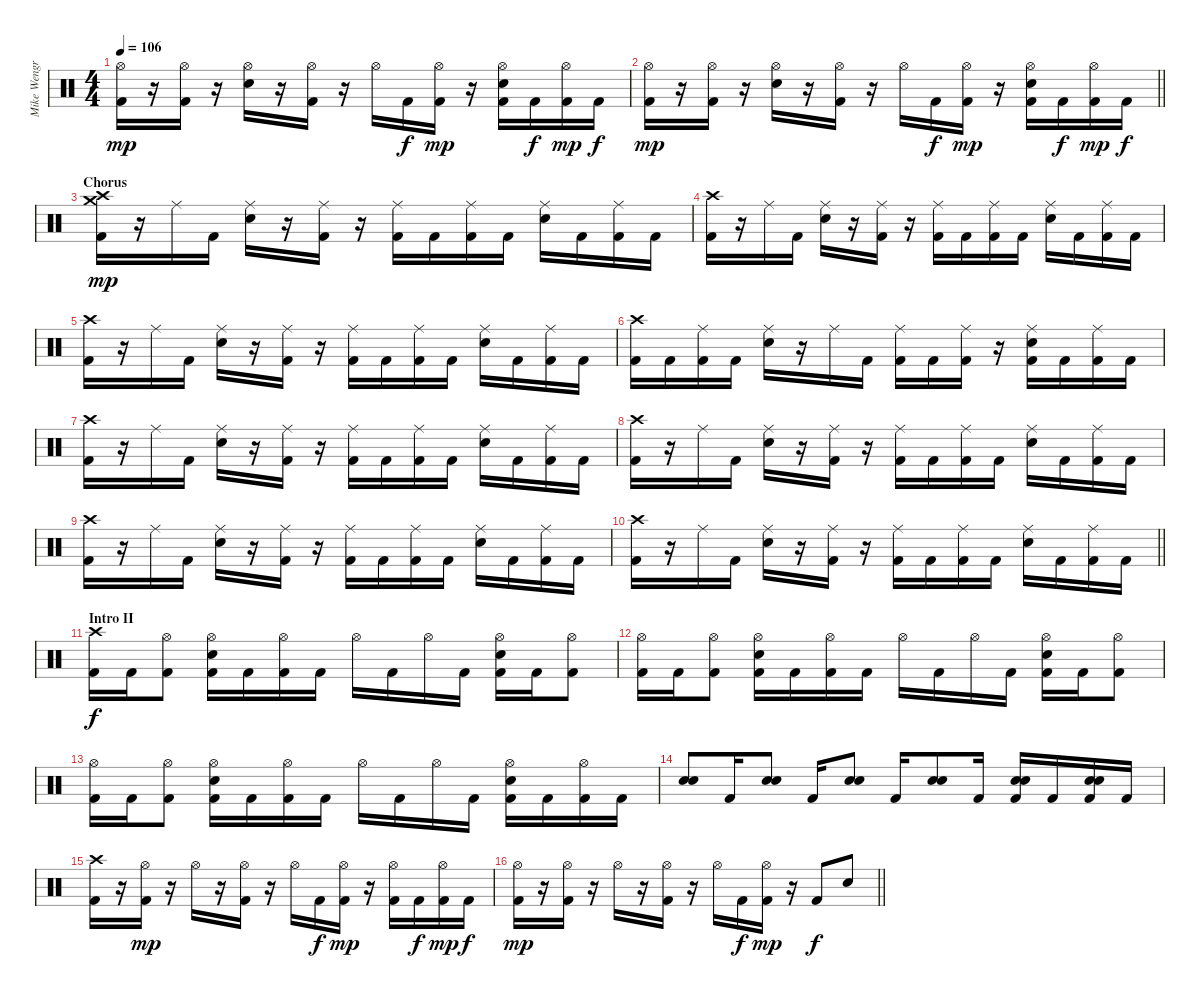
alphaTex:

\track ("Mike Wengren" "Mike Wengr") {instrument percussion}
\staff {score}
\articulation defaults
\ts (4 4)
\tempo 106
\clef neutral
\ks c
("Hi-Hat (open)" "Kick (hit) 2").16{dy mp} r.16 ("Hi-Hat (open)" "Kick (hit) 2").16 r.16 ("Hi-Hat (open)" "Snare (hit) 2").16 r.16 ("Hi-Hat (open)" "Kick (hit) 2").16 r.16 "Hi-Hat (open)".16 "Kick (hit) 2".16{dy f} ("Hi-Hat (open)" "Kick (hit) 2").16{dy mp} r.16 ("Hi-Hat (open)" "Snare (hit) 2" "Kick (hit) 2").16 "Kick (hit) 2".16{dy f} ("Hi-Hat (open)" "Kick (hit) 2").16{dy mp} "Kick (hit) 2".16{dy f} |
\barLineRight lightlight
("Hi-Hat (open)" "Kick (hit) 2").16{dy mp} r.16 ("Hi-Hat (open)" "Kick (hit) 2").16 r.16 ("Hi-Hat (open)" "Snare (hit) 2").16 r.16 ("Hi-Hat (open)" "Kick (hit) 2").16 r.16 "Hi-Hat (open)".16 "Kick (hit) 2".16{dy f} ("Hi-Hat (open)" "Kick (hit) 2").16{dy mp} r.16 ("Hi-Hat (open)" "Snare (hit) 2" "Kick (hit) 2").16 "Kick (hit) 2".16{dy f} ("Hi-Hat (open)" "Kick (hit) 2").16{dy mp} "Kick (hit) 2".16{dy f} |
\section ("" "Chorus")
("Crash high (hit)" "Crash medium (hit)" "Kick (hit) 2").16{dy mp} r.16 "Ride (middle)".16 "Kick (hit) 2".16 ("Ride (middle)" "Snare (hit) 2").16 r.16 ("Ride (middle)" "Kick (hit) 2").16 r.16 ("Ride (middle)" "Kick (hit) 2").16 "Kick (hit) 2".16 ("Ride (middle)" "Kick (hit) 2").16 "Kick (hit) 2".16 ("Ride (middle)" "Snare (hit) 2").16 "Kick (hit) 2".16 ("Ride (middle)" "Kick (hit) 2").16 "Kick (hit) 2".16 |
("Crash high (hit)" "Kick (hit) 2").16 r.16 "Ride (middle)".16 "Kick (hit) 2".16 ("Ride (middle)" "Snare (hit) 2").16 r.16 ("Ride (middle)" "Kick (hit) 2").16 r.16 ("Ride (middle)" "Kick (hit) 2").16 "Kick (hit) 2".16 ("Ride (middle)" "Kick (hit) 2").16 "Kick (hit) 2".16 ("Ride (middle)" "Snare (hit) 2").16 "Kick (hit) 2".16 ("Ride (middle)" "Kick (hit) 2").16 "Kick (hit) 2".16 |
("Crash high (hit)" "Kick (hit) 2").16 r.16 "Ride (middle)".16 "Kick (hit) 2".16 ("Ride (middle)" "Snare (hit) 2").16 r.16 ("Ride (middle)" "Kick (hit) 2").16 r.16 ("Ride (middle)" "Kick (hit) 2").16 "Kick (hit) 2".16 ("Ride (middle)" "Kick (hit) 2").16 "Kick (hit) 2".16 ("Ride (middle)" "Snare (hit) 2").16 "Kick (hit) 2".16 ("Ride (middle)" "Kick (hit) 2").16 "Kick (hit) 2".16 |
("Crash high (hit)" "Kick (hit) 2").16 "Kick (hit) 2".16 ("Ride (middle)" "Kick (hit) 2").16 "Kick (hit) 2".16 ("Ride (middle)" "Snare (hit) 2").16 r.16 "Ride (middle)".16 "Kick (hit) 2".16 ("Ride (middle)" "Kick (hit) 2").16 "Kick (hit) 2".16 ("Ride (middle)" "Kick (hit) 2").16 r.16 ("Ride (middle)" "Snare (hit) 2" "Kick (hit) 2").16 "Kick (hit) 2".16 ("Ride (middle)" "Kick (hit) 2").16 "Kick (hit) 2".16 |
("Crash high (hit)" "Kick (hit) 2").16 r.16 "Ride (middle)".16 "Kick (hit) 2".16 ("Ride (middle)" "Snare (hit) 2").16 r.16 ("Ride (middle)" "Kick (hit) 2").16 r.16 ("Ride (middle)" "Kick (hit) 2").16 "Kick (hit) 2".16 ("Ride (middle)" "Kick (hit) 2").16 "Kick (hit) 2".16 ("Ride (middle)" "Snare (hit) 2").16 "Kick (hit) 2".16 ("Ride (middle)" "Kick (hit) 2").16 "Kick (hit) 2".16 |
("Crash high (hit)" "Kick (hit) 2").16 r.16 "Ride (middle)".16 "Kick (hit) 2".16 ("Ride (middle)" "Snare (hit) 2").16 r.16 ("Ride (middle)" "Kick (hit) 2").16 r.16 ("Ride (middle)" "Kick (hit) 2").16 "Kick (hit) 2".16 ("Ride (middle)" "Kick (hit) 2").16 "Kick (hit) 2".16 ("Ride (middle)" "Snare (hit) 2").16 "Kick (hit) 2".16 ("Ride (middle)" "Kick (hit) 2").16 "Kick (hit) 2".16 |
("Crash high (hit)" "Kick (hit) 2").16 r.16 "Ride (middle)".16 "Kick (hit) 2".16 ("Ride (middle)" "Snare (hit) 2").16 r.16 ("Ride (middle)" "Kick (hit) 2").16 r.16 ("Ride (middle)" "Kick (hit) 2").16 "Kick (hit) 2".16 ("Ride (middle)" "Kick (hit) 2").16 "Kick (hit) 2".16 ("Ride (middle)" "Snare (hit) 2").16 "Kick (hit) 2".16 ("Ride (middle)" "Kick (hit) 2").16 "Kick (hit) 2".16 |
\barLineRight lightlight
("Crash high (hit)" "Kick (hit) 2").16 r.16 "Ride (middle)".16 "Kick (hit) 2".16 ("Ride (middle)" "Snare (hit) 2").16 r.16 ("Ride (middle)" "Kick (hit) 2").16 r.16 ("Ride (middle)" "Kick (hit) 2").16 "Kick (hit) 2".16 ("Ride (middle)" "Kick (hit) 2").16 "Kick (hit) 2".16 ("Ride (middle)" "Snare (hit) 2").16 "Kick (hit) 2".16 ("Ride (middle)" "Kick (hit) 2").16 "Kick (hit) 2".16 |
\section ("" "Intro II")
("Crash high (hit)" "Kick (hit) 2").16{dy f} "Kick (hit) 2".16 ("Hi-Hat (open)" "Kick (hit) 2").8 ("Hi-Hat (open)" "Snare (hit) 2" "Kick (hit) 2").16 "Kick (hit) 2".16 ("Hi-Hat (open)" "Kick (hit) 2").16 "Kick (hit) 2".16 "Hi-Hat (open)".16 "Kick (hit) 2".16 "Hi-Hat (open)".16 "Kick (hit) 2".16 ("Hi-Hat (open)" "Snare (hit) 2" "Kick (hit) 2").16 "Kick (hit) 2".16 ("Hi-Hat (open)" "Kick (hit) 2").8 |
("Hi-Hat (open)" "Kick (hit) 2").16 "Kick (hit) 2".16 ("Hi-Hat (open)" "Kick (hit) 2").8 ("Hi-Hat (open)" "Snare (hit) 2" "Kick (hit) 2").16 "Kick (hit) 2".16 ("Hi-Hat (open)" "Kick (hit) 2").16 "Kick (hit) 2".16 "Hi-Hat (open)".16 "Kick (hit) 2".16 "Hi-Hat (open)".16 "Kick (hit) 2".16 ("Hi-Hat (open)" "Snare (hit) 2" "Kick (hit) 2").16 "Kick (hit) 2".16 ("Hi-Hat (open)" "Kick (hit) 2").8 |
("Hi-Hat (open)" "Kick (hit) 2").16 "Kick (hit) 2".16 ("Hi-Hat (open)" "Kick (hit) 2").8 ("Hi-Hat (open)" "Snare (hit) 2" "Kick (hit) 2").16 "Kick (hit) 2".16 ("Hi-Hat (open)" "Kick (hit) 2").16 "Kick (hit) 2".16 "Hi-Hat (open)".16 "Kick (hit) 2".16 "Hi-Hat (open)".16 "Kick (hit) 2".16 ("Hi-Hat (open)" "Snare (hit) 2" "Kick (hit) 2").16 "Kick (hit) 2".16 ("Hi-Hat (open)" "Kick (hit) 2").16 "Kick (hit) 2".16 |
("Snare (hit) 2" "Snare (hit) 2").8 "Kick (hit) 2".16 ("Snare (hit) 2" "Snare (hit) 2").8 "Kick (hit) 2".16 ("Snare (hit) 2" "Snare (hit) 2").8 "Kick (hit) 2".16 ("Snare (hit) 2" "Snare (hit) 2").8 "Kick (hit) 2".16 ("Snare (hit) 2" "Snare (hit) 2" "Kick (hit) 2").16 "Kick (hit) 2".16 ("Snare (hit) 2" "Snare (hit) 2" "Kick (hit) 2").16 "Kick (hit) 2".16 |
("Crash high (hit)" "Kick (hit) 2").16 r.16 ("Hi-Hat (open)" "Kick (hit) 2").16{dy mp} r.16 "Hi-Hat (open)".16 r.16 ("Hi-Hat (open)" "Kick (hit) 2").16 r.16 "Hi-Hat (open)".16 "Kick (hit) 2".16{dy f} ("Hi-Hat (open)" "Kick (hit) 2").16{dy mp} r.16 ("Hi-Hat (open)" "Kick (hit) 2").16 "Kick (hit) 2".16{dy f} ("Hi-Hat (open)" "Kick (hit) 2").16{dy mp} "Kick (hit) 2".16{dy f} |
\barLineRight lightlight
("Hi-Hat (open)" "Kick (hit) 2").16{dy mp} r.16 ("Hi-Hat (open)" "Kick (hit) 2").16 r.16 "Hi-Hat (open)".16 r.16 ("Hi-Hat (open)" "Kick (hit) 2").16 r.16 "Hi-Hat (open)".16 "Kick (hit) 2".16{dy f} ("Hi-Hat (open)" "Kick (hit) 2").16{dy mp} r.16 "Kick (hit) 2".8{dy f} "Snare (hit) 2".8
